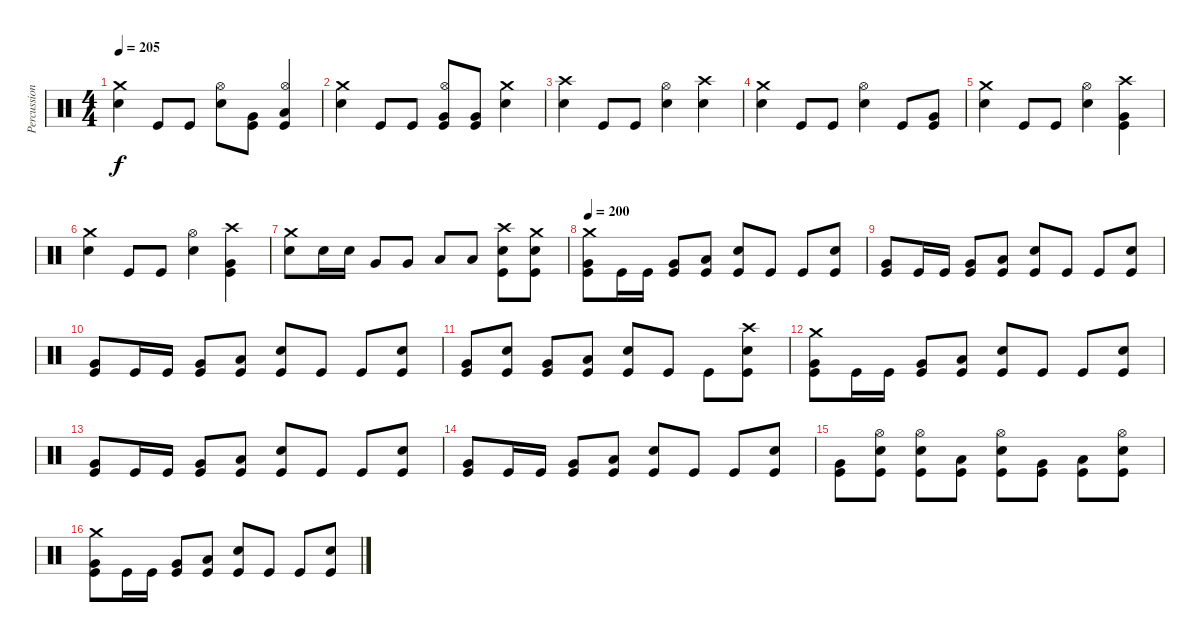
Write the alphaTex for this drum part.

\track ("Percussion" "Percussion") {instrument percussion}
\staff {score}
\articulation defaults
\ts (4 4)
\tempo 205
\clef neutral
\ks c
("Snare (hit) 2" "Crash medium (hit)").4{dy f} "Kick (hit)".8 "Kick (hit)".8 ("Snare (hit) 2" "Hi-Hat (open)").8 ("Kick (hit)" "Very Low Tom (hit)").8 ("Kick (hit)" "Low Floor Tom (hit)" "Hi-Hat (open)").4 |
("Snare (hit) 2" "Crash medium (hit)").4 "Kick (hit)".8 "Kick (hit)".8 ("Kick (hit)" "Very Low Tom (hit)" "Hi-Hat (open)").8 ("Kick (hit)" "Very Low Tom (hit)").8 ("Snare (hit) 2" "Crash medium (hit)").4 |
("Snare (hit) 2" "Crash high (hit)").4 "Kick (hit)".8 "Kick (hit)".8 ("Snare (hit) 2" "Hi-Hat (open)").4 ("Snare (hit) 2" "Crash high (hit)").4 |
("Snare (hit) 2" "Crash medium (hit)").4 "Kick (hit)".8 "Kick (hit)".8 ("Snare (hit) 2" "Hi-Hat (open)").4 "Kick (hit)".8 ("Kick (hit)" "Very Low Tom (hit)").8 |
("Snare (hit) 2" "Crash medium (hit)").4 "Kick (hit)".8 "Kick (hit)".8 ("Snare (hit) 2" "Hi-Hat (open)").4 ("Kick (hit)" "Very Low Tom (hit)" "Crash high (hit)").4 |
("Snare (hit) 2" "Crash medium (hit)").4 "Kick (hit)".8 "Kick (hit)".8 ("Snare (hit) 2" "Hi-Hat (open)").4 ("Kick (hit)" "Very Low Tom (hit)" "Crash high (hit)").4 |
("Snare (hit) 2" "Crash medium (hit)").8 "Snare (hit) 2".16 "Snare (hit) 2".16 "Very Low Tom (hit)".8 "Very Low Tom (hit)".8 "Low Floor Tom (hit)".8 "Low Floor Tom (hit)".8 ("Kick (hit)" "Snare (hit) 2" "Crash high (hit)").8 ("Kick (hit)" "Snare (hit) 2" "Crash medium (hit)").8 |
\tempo 200
("Kick (hit)" "Very Low Tom (hit)" "Crash medium (hit)").8 "Kick (hit)".16 "Kick (hit)".16 ("Kick (hit)" "Very Low Tom (hit)").8 ("Kick (hit)" "Low Floor Tom (hit)").8 ("Kick (hit)" "Snare (hit) 2").8 "Kick (hit)".8 "Kick (hit)".8 ("Kick (hit)" "Snare (hit) 2").8 |
("Kick (hit)" "Very Low Tom (hit)").8 "Kick (hit)".16 "Kick (hit)".16 ("Kick (hit)" "Very Low Tom (hit)").8 ("Kick (hit)" "Low Floor Tom (hit)").8 ("Kick (hit)" "Snare (hit) 2").8 "Kick (hit)".8 "Kick (hit)".8 ("Kick (hit)" "Snare (hit) 2").8 |
("Kick (hit)" "Very Low Tom (hit)").8 "Kick (hit)".16 "Kick (hit)".16 ("Kick (hit)" "Very Low Tom (hit)").8 ("Kick (hit)" "Low Floor Tom (hit)").8 ("Kick (hit)" "Snare (hit) 2").8 "Kick (hit)".8 "Kick (hit)".8 ("Kick (hit)" "Snare (hit) 2").8 |
("Kick (hit)" "Very Low Tom (hit)").8 ("Kick (hit)" "Snare (hit) 2").8 ("Kick (hit)" "Very Low Tom (hit)").8 ("Kick (hit)" "Low Floor Tom (hit)").8 ("Kick (hit)" "Snare (hit) 2").8 "Kick (hit)".8 "Kick (hit)".8 ("Kick (hit)" "Snare (hit) 2" "Crash high (hit)").8 |
("Kick (hit)" "Very Low Tom (hit)" "Crash medium (hit)").8 "Kick (hit)".16 "Kick (hit)".16 ("Kick (hit)" "Very Low Tom (hit)").8 ("Kick (hit)" "Low Floor Tom (hit)").8 ("Kick (hit)" "Snare (hit) 2").8 "Kick (hit)".8 "Kick (hit)".8 ("Kick (hit)" "Snare (hit) 2").8 |
("Kick (hit)" "Very Low Tom (hit)").8 "Kick (hit)".16 "Kick (hit)".16 ("Kick (hit)" "Very Low Tom (hit)").8 ("Kick (hit)" "Low Floor Tom (hit)").8 ("Kick (hit)" "Snare (hit) 2").8 "Kick (hit)".8 "Kick (hit)".8 ("Kick (hit)" "Snare (hit) 2").8 |
("Kick (hit)" "Very Low Tom (hit)").8 "Kick (hit)".16 "Kick (hit)".16 ("Kick (hit)" "Very Low Tom (hit)").8 ("Kick (hit)" "Low Floor Tom (hit)").8 ("Kick (hit)" "Snare (hit) 2").8 "Kick (hit)".8 "Kick (hit)".8 ("Kick (hit)" "Snare (hit) 2").8 |
("Kick (hit)" "Very Low Tom (hit)").8 ("Kick (hit)" "Snare (hit) 2" "Hi-Hat (open)").8 ("Kick (hit)" "Snare (hit) 2" "Hi-Hat (open)").8 ("Kick (hit)" "Low Floor Tom (hit)").8 ("Kick (hit)" "Snare (hit) 2" "Hi-Hat (open)").8 ("Kick (hit)" "Very Low Tom (hit)").8 ("Kick (hit)" "Low Floor Tom (hit)").8 ("Kick (hit)" "Snare (hit) 2" "Hi-Hat (open)").8 |
("Kick (hit)" "Very Low Tom (hit)" "Crash medium (hit)").8 "Kick (hit)".16 "Kick (hit)".16 ("Kick (hit)" "Very Low Tom (hit)").8 ("Kick (hit)" "Low Floor Tom (hit)").8 ("Kick (hit)" "Snare (hit) 2").8 "Kick (hit)".8 "Kick (hit)".8 ("Kick (hit)" "Snare (hit) 2").8
